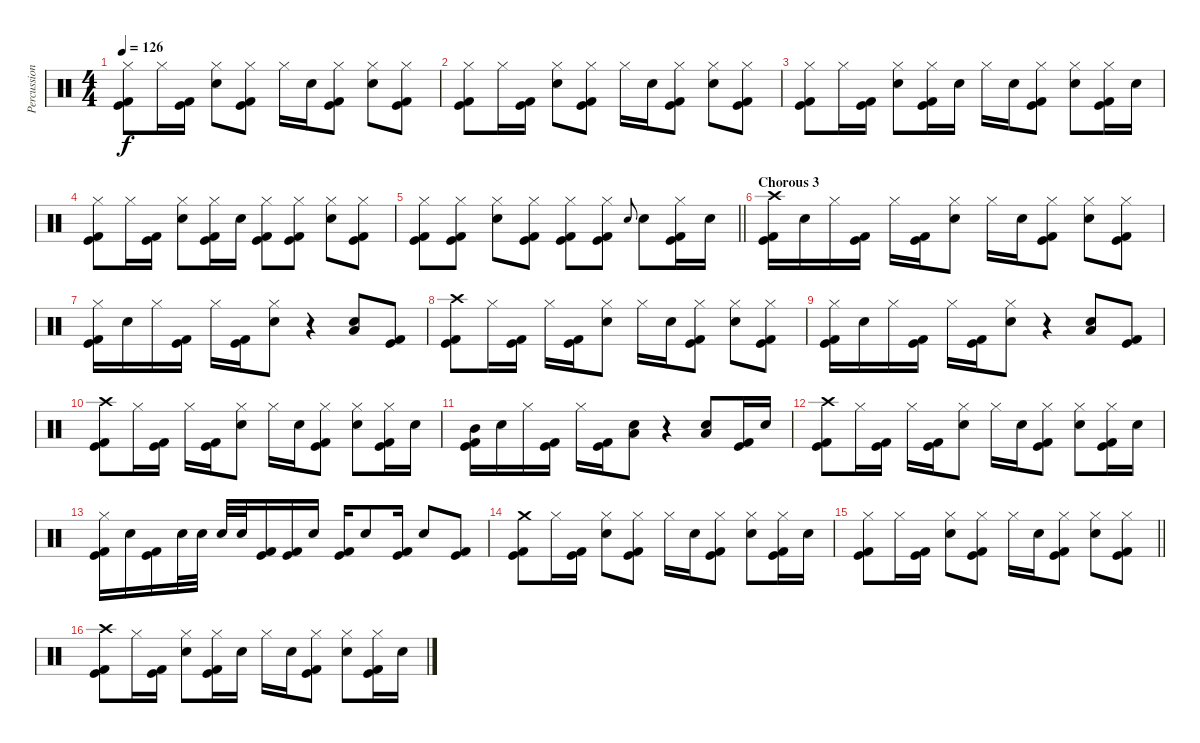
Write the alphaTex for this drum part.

\track ("Percussion" "Percussion") {instrument percussion}
\staff {score}
\articulation defaults
\ts (4 4)
\tempo 126
\clef neutral
\ks c
("Hi-Hat (closed)" "Kick (hit)" "Kick (hit) 2").8{dy f} "Hi-Hat (closed)".16 ("Kick (hit)" "Kick (hit) 2").16 ("Hi-Hat (closed)" "Electric Snare (hit)").8 ("Hi-Hat (closed)" "Kick (hit)" "Kick (hit) 2").8 "Hi-Hat (closed)".16 "Electric Snare (hit)".16 ("Hi-Hat (closed)" "Kick (hit)" "Kick (hit) 2").8 ("Hi-Hat (closed)" "Electric Snare (hit)").8 ("Hi-Hat (closed)" "Kick (hit)" "Kick (hit) 2").8 |
("Hi-Hat (closed)" "Kick (hit)" "Kick (hit) 2").8 "Hi-Hat (closed)".16 ("Kick (hit)" "Kick (hit) 2").16 ("Hi-Hat (closed)" "Electric Snare (hit)").8 ("Hi-Hat (closed)" "Kick (hit)" "Kick (hit) 2").8 "Hi-Hat (closed)".16 "Electric Snare (hit)".16 ("Hi-Hat (closed)" "Kick (hit)" "Kick (hit) 2").8 ("Hi-Hat (closed)" "Electric Snare (hit)").8 ("Hi-Hat (closed)" "Kick (hit)" "Kick (hit) 2").8 |
("Hi-Hat (closed)" "Kick (hit)" "Kick (hit) 2").8 "Hi-Hat (closed)".16 ("Kick (hit)" "Kick (hit) 2").16 ("Hi-Hat (closed)" "Electric Snare (hit)").8 ("Hi-Hat (closed)" "Kick (hit)" "Kick (hit) 2").16 "Electric Snare (hit)".16 "Hi-Hat (closed)".16 "Electric Snare (hit)".16 ("Hi-Hat (closed)" "Kick (hit)" "Kick (hit) 2").8 ("Hi-Hat (closed)" "Electric Snare (hit)").8 ("Hi-Hat (closed)" "Kick (hit)" "Kick (hit) 2").16 "Electric Snare (hit)".16 |
("Hi-Hat (closed)" "Kick (hit)" "Kick (hit) 2").8 "Hi-Hat (closed)".16 ("Kick (hit)" "Kick (hit) 2").16 ("Hi-Hat (closed)" "Electric Snare (hit)").8 ("Hi-Hat (closed)" "Kick (hit)" "Kick (hit) 2").16 "Electric Snare (hit)".16 ("Hi-Hat (closed)" "Kick (hit)" "Kick (hit) 2").8 ("Hi-Hat (closed)" "Kick (hit)" "Kick (hit) 2").8 ("Hi-Hat (closed)" "Electric Snare (hit)").8 ("Hi-Hat (closed)" "Kick (hit)" "Kick (hit) 2").8 |
\barLineRight lightlight
("Hi-Hat (closed)" "Kick (hit)" "Kick (hit) 2").8 ("Hi-Hat (closed)" "Kick (hit)" "Kick (hit) 2").8 ("Hi-Hat (closed)" "Electric Snare (hit)").8 ("Hi-Hat (closed)" "Kick (hit)" "Kick (hit) 2").8 ("Hi-Hat (closed)" "Kick (hit)" "Kick (hit) 2").8 ("Hi-Hat (closed)" "Kick (hit)" "Kick (hit) 2").8 "Electric Snare (hit)".8{gr onbeat} "Electric Snare (hit)".8 ("Hi-Hat (closed)" "Kick (hit)" "Kick (hit) 2").16 "Electric Snare (hit)".16 |
\section ("" "Chorous 3")
("Crash high (hit)" "Kick (hit)" "Kick (hit) 2").16 "Electric Snare (hit)".16 "Hi-Hat (closed)".16 ("Kick (hit)" "Kick (hit) 2").16 "Hi-Hat (closed)".16 ("Kick (hit)" "Kick (hit) 2").16 ("Hi-Hat (closed)" "Electric Snare (hit)").8 "Hi-Hat (closed)".16 "Electric Snare (hit)".16 ("Hi-Hat (closed)" "Kick (hit)" "Kick (hit) 2").8 ("Hi-Hat (closed)" "Electric Snare (hit)").8 ("Hi-Hat (closed)" "Kick (hit)" "Kick (hit) 2").8 |
("Hi-Hat (closed)" "Kick (hit)" "Kick (hit) 2").16 "Electric Snare (hit)".16 "Hi-Hat (closed)".16 ("Kick (hit)" "Kick (hit) 2").16 "Hi-Hat (closed)".16 ("Kick (hit)" "Kick (hit) 2").16 ("Hi-Hat (closed)" "Electric Snare (hit)").8 r.4 ("Electric Snare (hit)" "Low Floor Tom (hit)").8 ("Kick (hit)" "Kick (hit) 2").8 |
("Crash high (hit)" "Kick (hit)" "Kick (hit) 2").8 "Hi-Hat (closed)".16 ("Kick (hit)" "Kick (hit) 2").16 "Hi-Hat (closed)".16 ("Kick (hit)" "Kick (hit) 2").16 ("Hi-Hat (closed)" "Electric Snare (hit)").8 "Hi-Hat (closed)".16 "Electric Snare (hit)".16 ("Hi-Hat (closed)" "Kick (hit)" "Kick (hit) 2").8 ("Hi-Hat (closed)" "Electric Snare (hit)").8 ("Hi-Hat (closed)" "Kick (hit)" "Kick (hit) 2").8 |
("Hi-Hat (closed)" "Kick (hit)" "Kick (hit) 2").16 "Electric Snare (hit)".16 "Hi-Hat (closed)".16 ("Kick (hit)" "Kick (hit) 2").16 "Hi-Hat (closed)".16 ("Kick (hit)" "Kick (hit) 2").16 ("Hi-Hat (closed)" "Electric Snare (hit)").8 r.4 ("Electric Snare (hit)" "Low Floor Tom (hit)").8 ("Kick (hit)" "Kick (hit) 2").8 |
("Crash high (hit)" "Kick (hit)" "Kick (hit) 2").8 "Hi-Hat (closed)".16 ("Kick (hit)" "Kick (hit) 2").16 "Hi-Hat (closed)".16 ("Kick (hit)" "Kick (hit) 2").16 ("Hi-Hat (closed)" "Electric Snare (hit)").8 "Hi-Hat (closed)".16 "Electric Snare (hit)".16 ("Hi-Hat (closed)" "Kick (hit)" "Kick (hit) 2").8 ("Hi-Hat (closed)" "Electric Snare (hit)").8 ("Hi-Hat (closed)" "Kick (hit)" "Kick (hit) 2").16 "Electric Snare (hit)".16 |
("Mid Tom (hit)" "Kick (hit)" "Kick (hit) 2").16 "Electric Snare (hit)".16 "Hi-Hat (closed)".16 ("Kick (hit)" "Kick (hit) 2").16 "Hi-Hat (closed)".16 ("Kick (hit)" "Kick (hit) 2").16 ("Low Tom (hit)" "Electric Snare (hit)").8 r.4 ("Electric Snare (hit)" "Low Floor Tom (hit)").8 ("Kick (hit)" "Kick (hit) 2").16 "Electric Snare (hit)".16 |
("Crash high (hit)" "Kick (hit)" "Kick (hit) 2").8 "Hi-Hat (closed)".16 ("Kick (hit)" "Kick (hit) 2").16 "Hi-Hat (closed)".16 ("Kick (hit)" "Kick (hit) 2").16 ("Hi-Hat (closed)" "Electric Snare (hit)").8 "Hi-Hat (closed)".16 "Electric Snare (hit)".16 ("Hi-Hat (closed)" "Kick (hit)" "Kick (hit) 2").8 ("Hi-Hat (closed)" "Electric Snare (hit)").8 ("Hi-Hat (closed)" "Kick (hit)" "Kick (hit) 2").16 "Electric Snare (hit)".16 |
("Hi-Hat (closed)" "Kick (hit)" "Kick (hit) 2").16 "Electric Snare (hit)".16 ("Kick (hit)" "Kick (hit) 2").16 "Electric Snare (hit)".32 "Electric Snare (hit)".32 "Electric Snare (hit)".32 "Electric Snare (hit)".32 ("Kick (hit)" "Kick (hit) 2").16 ("Kick (hit)" "Kick (hit) 2").16 "Electric Snare (hit)".16 ("Kick (hit)" "Kick (hit) 2").16 "Electric Snare (hit)".8 ("Kick (hit)" "Kick (hit) 2").16 "Electric Snare (hit)".8 ("Kick (hit)" "Kick (hit) 2").8 |
("Crash medium (hit)" "Kick (hit)" "Kick (hit) 2").8 "Hi-Hat (closed)".16 ("Kick (hit)" "Kick (hit) 2").16 ("Hi-Hat (closed)" "Electric Snare (hit)").8 ("Hi-Hat (closed)" "Kick (hit)" "Kick (hit) 2").8 "Hi-Hat (closed)".16 "Electric Snare (hit)".16 ("Hi-Hat (closed)" "Kick (hit)" "Kick (hit) 2").8 ("Hi-Hat (closed)" "Electric Snare (hit)").8 ("Hi-Hat (closed)" "Kick (hit)" "Kick (hit) 2").16 "Electric Snare (hit)".16 |
\barLineRight lightlight
("Hi-Hat (closed)" "Kick (hit)" "Kick (hit) 2").8 "Hi-Hat (closed)".16 ("Kick (hit)" "Kick (hit) 2").16 ("Hi-Hat (closed)" "Electric Snare (hit)").8 ("Hi-Hat (closed)" "Kick (hit)" "Kick (hit) 2").8 "Hi-Hat (closed)".16 "Electric Snare (hit)".16 ("Hi-Hat (closed)" "Kick (hit)" "Kick (hit) 2").8 ("Hi-Hat (closed)" "Electric Snare (hit)").8 ("Hi-Hat (closed)" "Kick (hit)" "Kick (hit) 2").8 |
\section ("" "")
("Crash high (hit)" "Kick (hit)" "Kick (hit) 2").8 "Hi-Hat (closed)".16 ("Kick (hit)" "Kick (hit) 2").16 ("Hi-Hat (closed)" "Electric Snare (hit)").8 ("Hi-Hat (closed)" "Kick (hit)" "Kick (hit) 2").16 "Electric Snare (hit)".16 "Hi-Hat (closed)".16 "Electric Snare (hit)".16 ("Hi-Hat (closed)" "Kick (hit)" "Kick (hit) 2").8 ("Hi-Hat (closed)" "Electric Snare (hit)").8 ("Hi-Hat (closed)" "Kick (hit)" "Kick (hit) 2").16 "Electric Snare (hit)".16
